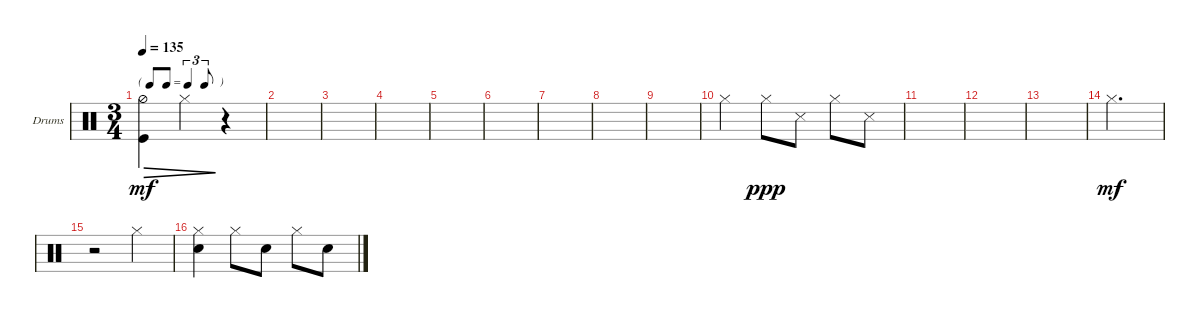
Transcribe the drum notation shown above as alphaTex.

\defaultSystemsLayout 4
\bracketExtendMode groupsimilarinstruments
\firstSystemTrackNameOrientation horizontal
\otherSystemsTrackNameOrientation horizontal
\track ("Drums" "Drums") {instrument percussion}
\staff {score}
\articulation defaults
\ts (3 4)
\tf triplet8th
\tempo 135
\clef neutral
\ks c
("Kick (hit)" "Hi-Hat (half)").4{dec dy mf} "Hi-Hat (closed)".4{dec} r.4 |
|
|
|
|
|
|
|
|
"Hi-Hat (closed)".4 "Hi-Hat (closed)".8{dy ppp} "Snare (side stick) 3".8 "Hi-Hat (closed)".8 "Snare (side stick) 3".8 |
|
|
|
"Hi-Hat (closed)".2{d dy mf} |
r.2 "Hi-Hat (closed)".4 |
("Hi-Hat (closed)" "Snare (hit) 2").4 "Hi-Hat (closed)".8 "Snare (hit) 2".8 "Hi-Hat (closed)".8 "Snare (hit) 2".8
